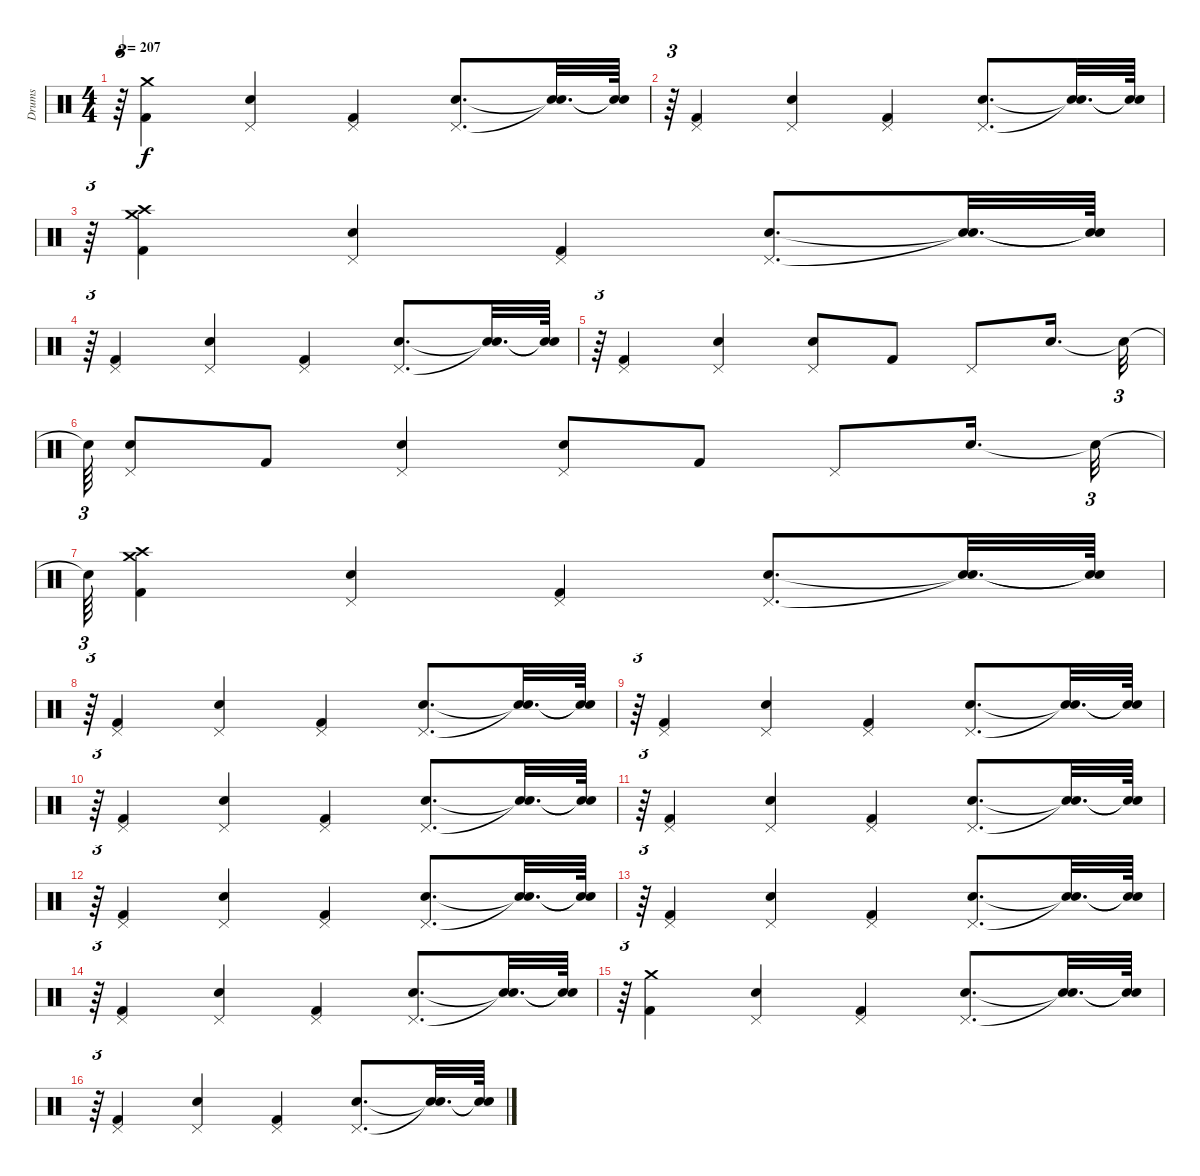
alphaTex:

\track ("Drums" "Drums") {instrument percussion}
\staff {score}
\articulation defaults
\ts (4 4)
\tempo 207
\clef neutral
\ks c
r.64{tu (3 2) dy f} ("Kick (hit) 2" "Crash medium (hit)").4 ("Pedal Hi-Hat (hit)" "Snare (hit) 2").4 ("Pedal Hi-Hat (hit)" "Kick (hit) 2").4 ("Pedal Hi-Hat (hit)" "Snare (hit) 2").8{d} ("Snare (hit)"{t} "Snare (hit)"{t}).32{d} ("Snare (hit)"{t} "Snare (hit)"{t}).64 |
r.64{tu (3 2)} ("Pedal Hi-Hat (hit)" "Kick (hit) 2").4 ("Pedal Hi-Hat (hit)" "Snare (hit) 2").4 ("Pedal Hi-Hat (hit)" "Kick (hit) 2").4 ("Pedal Hi-Hat (hit)" "Snare (hit) 2").8{d} ("Snare (hit)"{t} "Snare (hit)"{t}).32{d} ("Snare (hit)"{t} "Snare (hit)"{t}).64 |
r.64{tu (3 2)} ("Crash high (hit)" "Crash medium (hit)" "Kick (hit) 2").4 ("Pedal Hi-Hat (hit)" "Snare (hit) 2").4 ("Pedal Hi-Hat (hit)" "Kick (hit) 2").4 ("Pedal Hi-Hat (hit)" "Snare (hit) 2").8{d} ("Snare (hit)"{t} "Snare (hit)"{t}).32{d} ("Snare (hit)"{t} "Snare (hit)"{t}).64 |
r.64{tu (3 2)} ("Pedal Hi-Hat (hit)" "Kick (hit) 2").4 ("Pedal Hi-Hat (hit)" "Snare (hit) 2").4 ("Pedal Hi-Hat (hit)" "Kick (hit) 2").4 ("Pedal Hi-Hat (hit)" "Snare (hit) 2").8{d} ("Snare (hit)"{t} "Snare (hit)"{t}).32{d} ("Snare (hit)"{t} "Snare (hit)"{t}).64 |
r.64{tu (3 2)} ("Pedal Hi-Hat (hit)" "Kick (hit) 2").4 ("Pedal Hi-Hat (hit)" "Snare (hit) 2").4 ("Pedal Hi-Hat (hit)" "Snare (hit) 2").8 "Kick (hit) 2".8 "Pedal Hi-Hat (hit)".8 "Snare (hit) 2".16{d} "Snare (hit)"{t}.32{tu (3 2)} |
"Snare (hit)"{t}.64{tu (3 2)} ("Pedal Hi-Hat (hit)" "Snare (hit) 2").8 "Kick (hit) 2".8 ("Pedal Hi-Hat (hit)" "Snare (hit) 2").4 ("Pedal Hi-Hat (hit)" "Snare (hit) 2").8 "Kick (hit) 2".8 "Pedal Hi-Hat (hit)".8 "Snare (hit) 2".16{d} "Snare (hit)"{t}.32{tu (3 2)} |
"Snare (hit)"{t}.64{tu (3 2)} ("Kick (hit) 2" "Crash medium (hit)" "Crash high (hit)").4 ("Pedal Hi-Hat (hit)" "Snare (hit) 2").4 ("Pedal Hi-Hat (hit)" "Kick (hit) 2").4 ("Pedal Hi-Hat (hit)" "Snare (hit) 2").8{d} ("Snare (hit)"{t} "Snare (hit)"{t}).32{d} ("Snare (hit)"{t} "Snare (hit)"{t}).64 |
r.64{tu (3 2)} ("Pedal Hi-Hat (hit)" "Kick (hit) 2").4 ("Pedal Hi-Hat (hit)" "Snare (hit) 2").4 ("Pedal Hi-Hat (hit)" "Kick (hit) 2").4 ("Pedal Hi-Hat (hit)" "Snare (hit) 2").8{d} ("Snare (hit)"{t} "Snare (hit)"{t}).32{d} ("Snare (hit)"{t} "Snare (hit)"{t}).64 |
r.64{tu (3 2)} ("Pedal Hi-Hat (hit)" "Kick (hit) 2").4 ("Pedal Hi-Hat (hit)" "Snare (hit) 2").4 ("Pedal Hi-Hat (hit)" "Kick (hit) 2").4 ("Pedal Hi-Hat (hit)" "Snare (hit) 2").8{d} ("Snare (hit)"{t} "Snare (hit)"{t}).32{d} ("Snare (hit)"{t} "Snare (hit)"{t}).64 |
r.64{tu (3 2)} ("Pedal Hi-Hat (hit)" "Kick (hit) 2").4 ("Pedal Hi-Hat (hit)" "Snare (hit) 2").4 ("Pedal Hi-Hat (hit)" "Kick (hit) 2").4 ("Pedal Hi-Hat (hit)" "Snare (hit) 2").8{d} ("Snare (hit)"{t} "Snare (hit)"{t}).32{d} ("Snare (hit)"{t} "Snare (hit)"{t}).64 |
r.64{tu (3 2)} ("Pedal Hi-Hat (hit)" "Kick (hit) 2").4 ("Pedal Hi-Hat (hit)" "Snare (hit) 2").4 ("Pedal Hi-Hat (hit)" "Kick (hit) 2").4 ("Pedal Hi-Hat (hit)" "Snare (hit) 2").8{d} ("Snare (hit)"{t} "Snare (hit)"{t}).32{d} ("Snare (hit)"{t} "Snare (hit)"{t}).64 |
r.64{tu (3 2)} ("Pedal Hi-Hat (hit)" "Kick (hit) 2").4 ("Pedal Hi-Hat (hit)" "Snare (hit) 2").4 ("Pedal Hi-Hat (hit)" "Kick (hit) 2").4 ("Pedal Hi-Hat (hit)" "Snare (hit) 2").8{d} ("Snare (hit)"{t} "Snare (hit)"{t}).32{d} ("Snare (hit)"{t} "Snare (hit)"{t}).64 |
r.64{tu (3 2)} ("Pedal Hi-Hat (hit)" "Kick (hit) 2").4 ("Pedal Hi-Hat (hit)" "Snare (hit) 2").4 ("Pedal Hi-Hat (hit)" "Kick (hit) 2").4 ("Pedal Hi-Hat (hit)" "Snare (hit) 2").8{d} ("Snare (hit)"{t} "Snare (hit)"{t}).32{d} ("Snare (hit)"{t} "Snare (hit)"{t}).64 |
r.64{tu (3 2)} ("Pedal Hi-Hat (hit)" "Kick (hit) 2").4 ("Pedal Hi-Hat (hit)" "Snare (hit) 2").4 ("Pedal Hi-Hat (hit)" "Kick (hit) 2").4 ("Pedal Hi-Hat (hit)" "Snare (hit) 2").8{d} ("Snare (hit)"{t} "Snare (hit)"{t}).32{d} ("Snare (hit)"{t} "Snare (hit)"{t}).64 |
r.64{tu (3 2)} ("Crash medium (hit)" "Kick (hit) 2").4 ("Pedal Hi-Hat (hit)" "Snare (hit) 2").4 ("Pedal Hi-Hat (hit)" "Kick (hit) 2").4 ("Pedal Hi-Hat (hit)" "Snare (hit) 2").8{d} ("Snare (hit)"{t} "Snare (hit)"{t}).32{d} ("Snare (hit)"{t} "Snare (hit)"{t}).64 |
r.64{tu (3 2)} ("Pedal Hi-Hat (hit)" "Kick (hit) 2").4 ("Pedal Hi-Hat (hit)" "Snare (hit) 2").4 ("Pedal Hi-Hat (hit)" "Kick (hit) 2").4 ("Pedal Hi-Hat (hit)" "Snare (hit) 2").8{d} ("Snare (hit)"{t} "Snare (hit)"{t}).32{d} ("Snare (hit)"{t} "Snare (hit)"{t}).64
